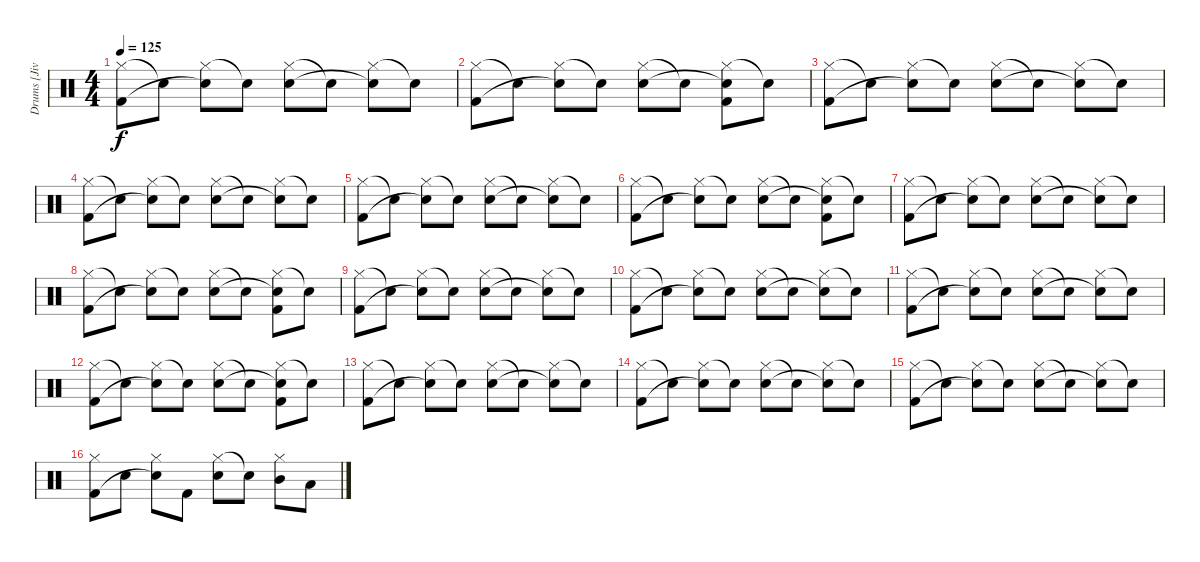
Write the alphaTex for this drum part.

\track ("Drums [Jivarp]" "Drums [Jiv") {instrument percussion}
\staff {score}
\articulation defaults
\ts (4 4)
\tempo 125
\clef neutral
\ks c
("Hi-Hat (closed)" "Kick (hit) 2").8{dy f} "Snare (hit)"{t}.8 ("Hi-Hat (closed)" "Snare (hit)"{t}).8 "Snare (hit)"{t}.8 ("Hi-Hat (closed)" "Electric Snare (hit)").8 "Snare (hit)"{t}.8 ("Hi-Hat (closed)" "Snare (hit)"{t}).8 "Snare (hit)"{t}.8 |
("Hi-Hat (closed)" "Kick (hit) 2").8 "Snare (hit)"{t}.8 ("Hi-Hat (closed)" "Snare (hit)"{t}).8 "Snare (hit)"{t}.8 ("Hi-Hat (closed)" "Electric Snare (hit)").8 "Snare (hit)"{t}.8 ("Hi-Hat (closed)" "Snare (hit)"{t} "Kick (hit) 2").8 "Snare (hit)"{t}.8 |
("Hi-Hat (closed)" "Kick (hit) 2").8 "Snare (hit)"{t}.8 ("Hi-Hat (closed)" "Snare (hit)"{t}).8 "Snare (hit)"{t}.8 ("Hi-Hat (closed)" "Electric Snare (hit)").8 "Snare (hit)"{t}.8 ("Hi-Hat (closed)" "Snare (hit)"{t}).8 "Snare (hit)"{t}.8 |
("Hi-Hat (closed)" "Kick (hit) 2").8 "Snare (hit)"{t}.8 ("Hi-Hat (closed)" "Snare (hit)"{t}).8 "Snare (hit)"{t}.8 ("Hi-Hat (closed)" "Electric Snare (hit)").8 "Snare (hit)"{t}.8 ("Hi-Hat (closed)" "Snare (hit)"{t}).8 "Snare (hit)"{t}.8 |
("Hi-Hat (closed)" "Kick (hit) 2").8 "Snare (hit)"{t}.8 ("Hi-Hat (closed)" "Snare (hit)"{t}).8 "Snare (hit)"{t}.8 ("Hi-Hat (closed)" "Electric Snare (hit)").8 "Snare (hit)"{t}.8 ("Hi-Hat (closed)" "Snare (hit)"{t}).8 "Snare (hit)"{t}.8 |
("Hi-Hat (closed)" "Kick (hit) 2").8 "Snare (hit)"{t}.8 ("Hi-Hat (closed)" "Snare (hit)"{t}).8 "Snare (hit)"{t}.8 ("Hi-Hat (closed)" "Electric Snare (hit)").8 "Snare (hit)"{t}.8 ("Hi-Hat (closed)" "Snare (hit)"{t} "Kick (hit) 2").8 "Snare (hit)"{t}.8 |
("Hi-Hat (closed)" "Kick (hit) 2").8 "Snare (hit)"{t}.8 ("Hi-Hat (closed)" "Snare (hit)"{t}).8 "Snare (hit)"{t}.8 ("Hi-Hat (closed)" "Electric Snare (hit)").8 "Snare (hit)"{t}.8 ("Hi-Hat (closed)" "Snare (hit)"{t}).8 "Snare (hit)"{t}.8 |
("Hi-Hat (closed)" "Kick (hit) 2").8 "Snare (hit)"{t}.8 ("Hi-Hat (closed)" "Snare (hit)"{t}).8 "Snare (hit)"{t}.8 ("Hi-Hat (closed)" "Electric Snare (hit)").8 "Snare (hit)"{t}.8 ("Hi-Hat (closed)" "Snare (hit)"{t} "Kick (hit) 2").8 "Snare (hit)"{t}.8 |
("Hi-Hat (closed)" "Kick (hit) 2").8 "Snare (hit)"{t}.8 ("Hi-Hat (closed)" "Snare (hit)"{t}).8 "Snare (hit)"{t}.8 ("Hi-Hat (closed)" "Electric Snare (hit)").8 "Snare (hit)"{t}.8 ("Hi-Hat (closed)" "Snare (hit)"{t}).8 "Snare (hit)"{t}.8 |
("Hi-Hat (closed)" "Kick (hit) 2").8 "Snare (hit)"{t}.8 ("Hi-Hat (closed)" "Snare (hit)"{t}).8 "Snare (hit)"{t}.8 ("Hi-Hat (closed)" "Electric Snare (hit)").8 "Snare (hit)"{t}.8 ("Hi-Hat (closed)" "Snare (hit)"{t}).8 "Snare (hit)"{t}.8 |
("Hi-Hat (closed)" "Kick (hit) 2").8 "Snare (hit)"{t}.8 ("Hi-Hat (closed)" "Snare (hit)"{t}).8 "Snare (hit)"{t}.8 ("Hi-Hat (closed)" "Electric Snare (hit)").8 "Snare (hit)"{t}.8 ("Hi-Hat (closed)" "Snare (hit)"{t}).8 "Snare (hit)"{t}.8 |
("Hi-Hat (closed)" "Kick (hit) 2").8 "Snare (hit)"{t}.8 ("Hi-Hat (closed)" "Snare (hit)"{t}).8 "Snare (hit)"{t}.8 ("Hi-Hat (closed)" "Electric Snare (hit)").8 "Snare (hit)"{t}.8 ("Hi-Hat (closed)" "Snare (hit)"{t} "Kick (hit) 2").8 "Snare (hit)"{t}.8 |
("Hi-Hat (closed)" "Kick (hit) 2").8 "Snare (hit)"{t}.8 ("Hi-Hat (closed)" "Snare (hit)"{t}).8 "Snare (hit)"{t}.8 ("Hi-Hat (closed)" "Electric Snare (hit)").8 "Snare (hit)"{t}.8 ("Hi-Hat (closed)" "Snare (hit)"{t}).8 "Snare (hit)"{t}.8 |
("Hi-Hat (closed)" "Kick (hit) 2").8 "Snare (hit)"{t}.8 ("Hi-Hat (closed)" "Snare (hit)"{t}).8 "Snare (hit)"{t}.8 ("Hi-Hat (closed)" "Electric Snare (hit)").8 "Snare (hit)"{t}.8 ("Hi-Hat (closed)" "Snare (hit)"{t}).8 "Snare (hit)"{t}.8 |
("Hi-Hat (closed)" "Kick (hit) 2").8 "Snare (hit)"{t}.8 ("Hi-Hat (closed)" "Snare (hit)"{t}).8 "Snare (hit)"{t}.8 ("Hi-Hat (closed)" "Electric Snare (hit)").8 "Snare (hit)"{t}.8 ("Hi-Hat (closed)" "Snare (hit)"{t}).8 "Snare (hit)"{t}.8 |
("Hi-Hat (closed)" "Kick (hit) 2").8 "Electric Snare (hit)".8 ("Hi-Hat (closed)" "Snare (hit)"{t}).8 "Kick (hit) 2".8 ("Hi-Hat (closed)" "Electric Snare (hit)").8 "Snare (hit)"{t}.8 ("Hi-Hat (closed)" "Mid Tom (hit)").8 "Low Tom (hit)".8
